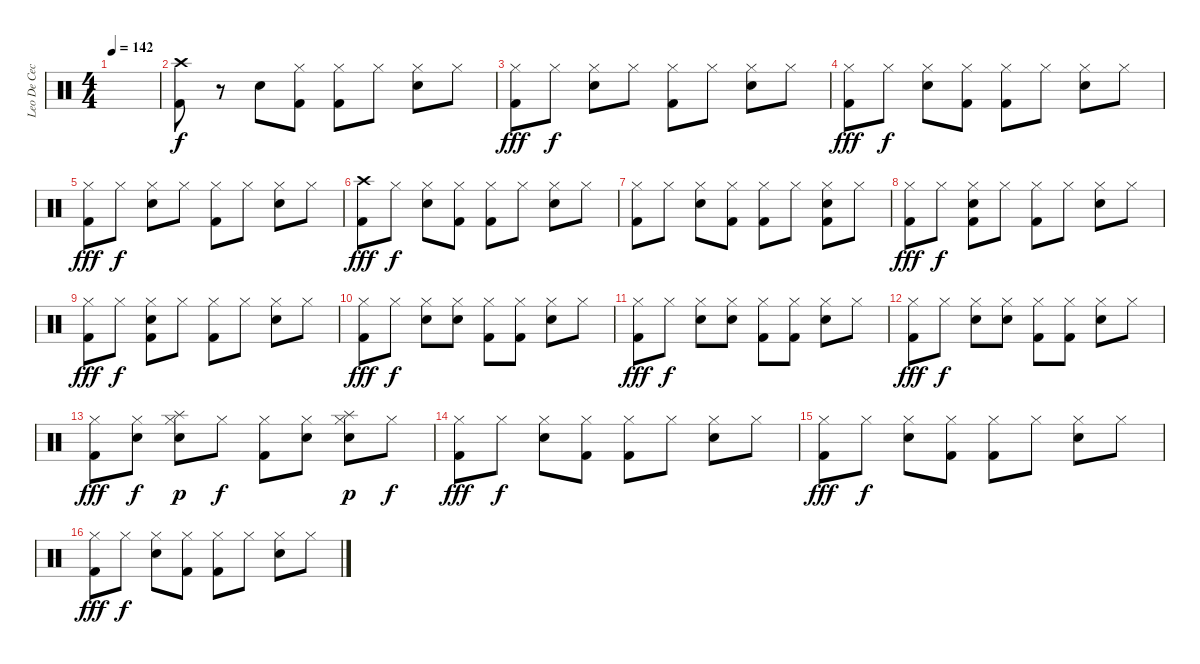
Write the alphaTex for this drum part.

\track ("Leo De Cecco" "Leo De Cec") {instrument percussion}
\staff {score}
\articulation defaults
\ts (4 4)
\tempo 142
\clef neutral
\ks c
|
("Crash high (hit)" "Kick (hit) 2").8 r.8 "Electric Snare (hit)".8{dy f} ("Hi-Hat (closed)" "Kick (hit) 2").8 ("Hi-Hat (closed)" "Kick (hit) 2").8 "Hi-Hat (closed)".8 ("Hi-Hat (closed)" "Electric Snare (hit)").8 "Hi-Hat (closed)".8 |
("Hi-Hat (closed)" "Kick (hit) 2").8{dy fff} "Hi-Hat (closed)".8{dy f} ("Hi-Hat (closed)" "Electric Snare (hit)").8 "Hi-Hat (closed)".8 ("Hi-Hat (closed)" "Kick (hit) 2").8 "Hi-Hat (closed)".8 ("Hi-Hat (closed)" "Electric Snare (hit)").8 "Hi-Hat (closed)".8 |
("Hi-Hat (closed)" "Kick (hit) 2").8{dy fff} "Hi-Hat (closed)".8{dy f} ("Hi-Hat (closed)" "Electric Snare (hit)").8 ("Hi-Hat (closed)" "Kick (hit) 2").8 ("Hi-Hat (closed)" "Kick (hit) 2").8 "Hi-Hat (closed)".8 ("Hi-Hat (closed)" "Electric Snare (hit)").8 "Hi-Hat (closed)".8 |
("Hi-Hat (closed)" "Kick (hit) 2").8{dy fff} "Hi-Hat (closed)".8{dy f} ("Hi-Hat (closed)" "Electric Snare (hit)").8 "Hi-Hat (closed)".8 ("Hi-Hat (closed)" "Kick (hit) 2").8 "Hi-Hat (closed)".8 ("Hi-Hat (closed)" "Electric Snare (hit)").8 "Hi-Hat (closed)".8 |
("Crash high (hit)" "Kick (hit) 2").8{dy fff} "Hi-Hat (closed)".8{dy f} ("Hi-Hat (closed)" "Electric Snare (hit)").8 ("Hi-Hat (closed)" "Kick (hit) 2").8 ("Hi-Hat (closed)" "Kick (hit) 2").8 "Hi-Hat (closed)".8 ("Hi-Hat (closed)" "Electric Snare (hit)").8 "Hi-Hat (closed)".8 |
("Hi-Hat (closed)" "Kick (hit) 2").8 "Hi-Hat (closed)".8 ("Hi-Hat (closed)" "Electric Snare (hit)").8 ("Hi-Hat (closed)" "Kick (hit) 2").8 ("Hi-Hat (closed)" "Kick (hit) 2").8 "Hi-Hat (closed)".8 ("Hi-Hat (closed)" "Electric Snare (hit)" "Kick (hit) 2").8 "Hi-Hat (closed)".8 |
("Hi-Hat (closed)" "Kick (hit) 2").8{dy fff} "Hi-Hat (closed)".8{dy f} ("Hi-Hat (closed)" "Electric Snare (hit)" "Kick (hit) 2").8 "Hi-Hat (closed)".8 ("Hi-Hat (closed)" "Kick (hit) 2").8 "Hi-Hat (closed)".8 ("Hi-Hat (closed)" "Electric Snare (hit)").8 "Hi-Hat (closed)".8 |
("Hi-Hat (closed)" "Kick (hit) 2").8{dy fff} "Hi-Hat (closed)".8{dy f} ("Hi-Hat (closed)" "Electric Snare (hit)" "Kick (hit) 2").8 "Hi-Hat (closed)".8 ("Hi-Hat (closed)" "Kick (hit) 2").8 "Hi-Hat (closed)".8 ("Hi-Hat (closed)" "Electric Snare (hit)").8 "Hi-Hat (closed)".8 |
("Hi-Hat (closed)" "Kick (hit) 2").8{dy fff} "Hi-Hat (closed)".8{dy f} ("Hi-Hat (closed)" "Electric Snare (hit)").8 ("Hi-Hat (closed)" "Electric Snare (hit)").8 ("Hi-Hat (closed)" "Kick (hit) 2").8 ("Hi-Hat (closed)" "Kick (hit) 2").8 ("Hi-Hat (closed)" "Electric Snare (hit)").8 "Hi-Hat (closed)".8 |
("Hi-Hat (closed)" "Kick (hit) 2").8{dy fff} "Hi-Hat (closed)".8{dy f} ("Hi-Hat (closed)" "Electric Snare (hit)").8 ("Hi-Hat (closed)" "Electric Snare (hit)").8 ("Hi-Hat (closed)" "Kick (hit) 2").8 ("Hi-Hat (closed)" "Kick (hit) 2").8 ("Hi-Hat (closed)" "Electric Snare (hit)").8 "Hi-Hat (closed)".8 |
("Hi-Hat (closed)" "Kick (hit) 2").8{dy fff} "Hi-Hat (closed)".8{dy f} ("Hi-Hat (closed)" "Electric Snare (hit)").8 ("Hi-Hat (closed)" "Electric Snare (hit)").8 ("Hi-Hat (closed)" "Kick (hit) 2").8 ("Hi-Hat (closed)" "Kick (hit) 2").8 ("Hi-Hat (closed)" "Electric Snare (hit)").8 "Hi-Hat (closed)".8 |
("Hi-Hat (closed)" "Kick (hit) 2").8{dy fff} ("Hi-Hat (closed)" "Electric Snare (hit)").8{dy f} ("Splash (hit)" "Hi-Hat (closed)" "Electric Snare (hit)").8{dy p} "Hi-Hat (closed)".8{dy f} ("Hi-Hat (closed)" "Kick (hit) 2").8 ("Hi-Hat (closed)" "Electric Snare (hit)").8 ("Splash (hit)" "Hi-Hat (closed)" "Electric Snare (hit)").8{dy p} "Hi-Hat (closed)".8{dy f} |
("Hi-Hat (closed)" "Kick (hit) 2").8{dy fff} "Hi-Hat (closed)".8{dy f} ("Hi-Hat (closed)" "Electric Snare (hit)").8 ("Hi-Hat (closed)" "Kick (hit) 2").8 ("Hi-Hat (closed)" "Kick (hit) 2").8 "Hi-Hat (closed)".8 ("Hi-Hat (closed)" "Electric Snare (hit)").8 "Hi-Hat (closed)".8 |
("Hi-Hat (closed)" "Kick (hit) 2").8{dy fff} "Hi-Hat (closed)".8{dy f} ("Hi-Hat (closed)" "Electric Snare (hit)").8 ("Hi-Hat (closed)" "Kick (hit) 2").8 ("Hi-Hat (closed)" "Kick (hit) 2").8 "Hi-Hat (closed)".8 ("Hi-Hat (closed)" "Electric Snare (hit)").8 "Hi-Hat (closed)".8 |
("Hi-Hat (closed)" "Kick (hit) 2").8{dy fff} "Hi-Hat (closed)".8{dy f} ("Hi-Hat (closed)" "Electric Snare (hit)").8 ("Hi-Hat (closed)" "Kick (hit) 2").8 ("Hi-Hat (closed)" "Kick (hit) 2").8 "Hi-Hat (closed)".8 ("Hi-Hat (closed)" "Electric Snare (hit)").8 "Hi-Hat (closed)".8
